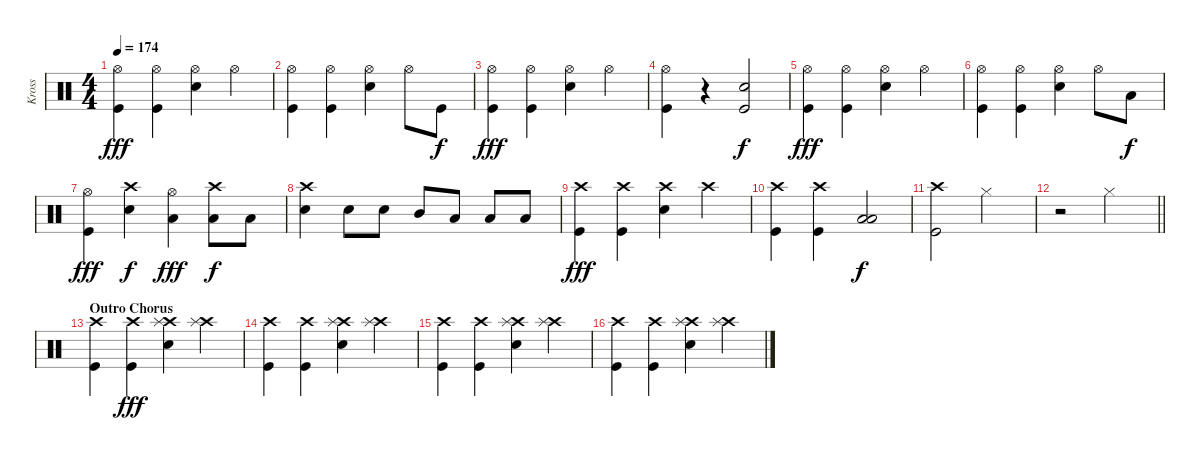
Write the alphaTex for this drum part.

\track ("Kross" "Kross") {instrument percussion}
\staff {score}
\articulation defaults
\ts (4 4)
\tempo 174
\clef neutral
\ks c
("Hi-Hat (open)" "Kick (hit)").4{dy fff} ("Hi-Hat (open)" "Kick (hit)").4 ("Hi-Hat (open)" "Snare (hit) 2").4 "Hi-Hat (open)".4 |
("Hi-Hat (open)" "Kick (hit)").4 ("Hi-Hat (open)" "Kick (hit)").4 ("Hi-Hat (open)" "Snare (hit) 2").4 "Hi-Hat (open)".8 "Kick (hit)".8{dy f} |
("Hi-Hat (open)" "Kick (hit)").4{dy fff} ("Hi-Hat (open)" "Kick (hit)").4 ("Hi-Hat (open)" "Snare (hit) 2").4 "Hi-Hat (open)".4 |
("Hi-Hat (open)" "Kick (hit)").4 r.4 ("Snare (hit) 2" "Kick (hit)").2{dy f} |
("Hi-Hat (open)" "Kick (hit)").4{dy fff} ("Hi-Hat (open)" "Kick (hit)").4 ("Hi-Hat (open)" "Snare (hit) 2").4 "Hi-Hat (open)".4 |
("Hi-Hat (open)" "Kick (hit)").4 ("Hi-Hat (open)" "Kick (hit)").4 ("Hi-Hat (open)" "Snare (hit) 2").4 "Hi-Hat (open)".8 "Low Floor Tom (hit)".8{dy f} |
("Hi-Hat (open)" "Kick (hit)").4{dy fff} ("Crash high (hit)" "Snare (hit) 2").4{dy f} ("Hi-Hat (open)" "Low Tom (hit)").4{dy fff} ("Crash high (hit)" "Low Tom (hit)").8{dy f} "Low Floor Tom (hit)".8 |
("Crash high (hit)" "Snare (hit) 2").4 "Snare (hit) 2".8 "Snare (hit) 2".8 "Mid Tom (hit)".8 "Low Tom (hit)".8 "Low Floor Tom (hit)".8 "Low Floor Tom (hit)".8 |
("Crash high (hit)" "Kick (hit)").4{dy fff} ("Crash high (hit)" "Kick (hit)").4 ("Crash high (hit)" "Snare (hit) 2").4 "Crash high (hit)".4 |
("Crash high (hit)" "Kick (hit)").4 ("Crash high (hit)" "Kick (hit)").4 ("Low Floor Tom (hit)" "Low Tom (hit)").2{dy f} |
("Crash high (hit)" "Kick (hit)").2 "Hi-Hat (closed)".2 |
\barLineRight lightlight
r.2 "Hi-Hat (closed)".2 |
\section ("" "Outro Chorus")
("Crash high (hit)" "Kick (hit)").4 ("Crash high (hit)" "Kick (hit)").4{dy fff} ("Crash high (hit)" "Splash (hit)" "Snare (hit) 2").4 ("Crash high (hit)" "Splash (hit)").4 |
("Crash high (hit)" "Kick (hit)").4 ("Crash high (hit)" "Kick (hit)").4 ("Crash high (hit)" "Splash (hit)" "Snare (hit) 2").4 ("Crash high (hit)" "Splash (hit)").4 |
("Crash high (hit)" "Kick (hit)").4 ("Crash high (hit)" "Kick (hit)").4 ("Crash high (hit)" "Splash (hit)" "Snare (hit) 2").4 ("Crash high (hit)" "Splash (hit)").4 |
("Crash high (hit)" "Kick (hit)").4 ("Crash high (hit)" "Kick (hit)").4 ("Crash high (hit)" "Splash (hit)" "Snare (hit) 2").4 ("Crash high (hit)" "Splash (hit)").4
